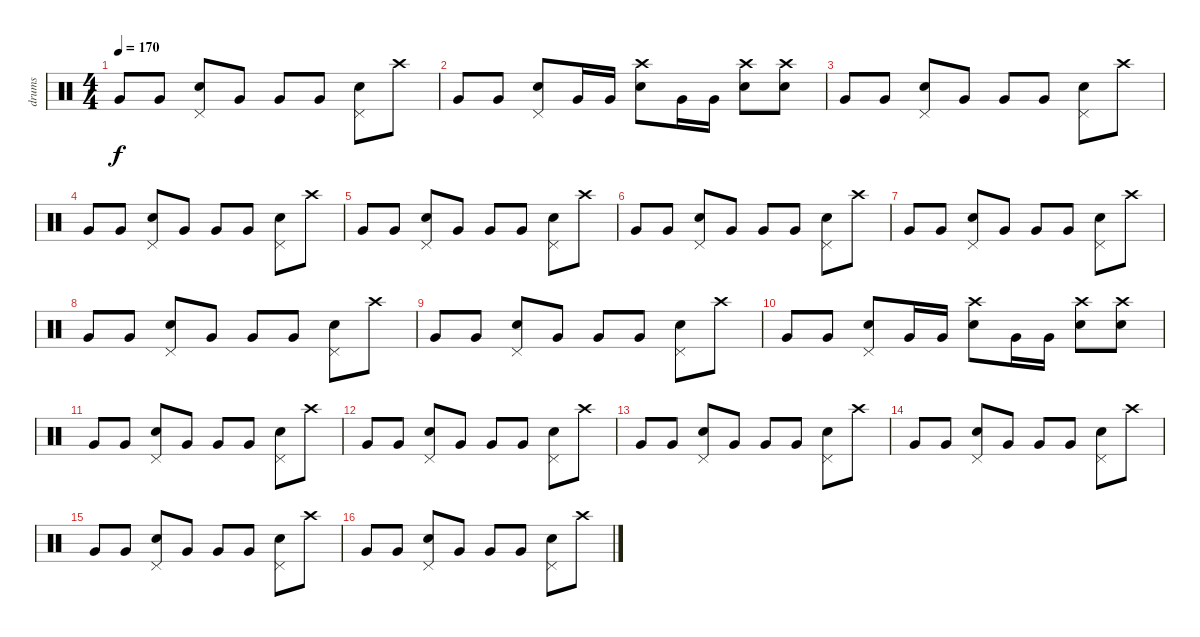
\track ("drums" "drums") {instrument percussion}
\staff {score}
\articulation defaults
\ts (4 4)
\tempo 170
\clef neutral
\ks c "Very Low Tom (hit)".8{dy f} "Very Low Tom (hit)".8
("Snare (hit) 2" "Pedal Hi-Hat (hit)").8 "Very Low Tom (hit)".8 "Very Low Tom (hit)".8 "Very Low Tom (hit)".8 ("Snare (hit) 2" "Pedal Hi-Hat (hit)").8 "Crash high (hit)".8 |
"Very Low Tom (hit)".8 "Very Low Tom (hit)".8 ("Snare (hit) 2" "Pedal Hi-Hat (hit)").8 "Very Low Tom (hit)".16 "Very Low Tom (hit)".16 ("Snare (hit) 2" "Crash high (hit)").8 "Very Low Tom (hit)".16 "Very Low Tom (hit)".16 ("Snare (hit) 2" "Crash high (hit)").8 ("Snare (hit) 2" "Crash high (hit)").8 |
"Very Low Tom (hit)".8 "Very Low Tom (hit)".8 ("Snare (hit) 2" "Pedal Hi-Hat (hit)").8 "Very Low Tom (hit)".8 "Very Low Tom (hit)".8 "Very Low Tom (hit)".8 ("Snare (hit) 2" "Pedal Hi-Hat (hit)").8 "Crash high (hit)".8 |
"Very Low Tom (hit)".8 "Very Low Tom (hit)".8 ("Snare (hit) 2" "Pedal Hi-Hat (hit)").8 "Very Low Tom (hit)".8 "Very Low Tom (hit)".8 "Very Low Tom (hit)".8 ("Snare (hit) 2" "Pedal Hi-Hat (hit)").8 "Crash high (hit)".8 |
"Very Low Tom (hit)".8 "Very Low Tom (hit)".8 ("Snare (hit) 2" "Pedal Hi-Hat (hit)").8 "Very Low Tom (hit)".8 "Very Low Tom (hit)".8 "Very Low Tom (hit)".8 ("Snare (hit) 2" "Pedal Hi-Hat (hit)").8 "Crash high (hit)".8 |
"Very Low Tom (hit)".8 "Very Low Tom (hit)".8 ("Snare (hit) 2" "Pedal Hi-Hat (hit)").8 "Very Low Tom (hit)".8 "Very Low Tom (hit)".8 "Very Low Tom (hit)".8 ("Snare (hit) 2" "Pedal Hi-Hat (hit)").8 "Crash high (hit)".8 |
"Very Low Tom (hit)".8 "Very Low Tom (hit)".8 ("Snare (hit) 2" "Pedal Hi-Hat (hit)").8 "Very Low Tom (hit)".8 "Very Low Tom (hit)".8 "Very Low Tom (hit)".8 ("Snare (hit) 2" "Pedal Hi-Hat (hit)").8 "Crash high (hit)".8 |
"Very Low Tom (hit)".8 "Very Low Tom (hit)".8 ("Snare (hit) 2" "Pedal Hi-Hat (hit)").8 "Very Low Tom (hit)".8 "Very Low Tom (hit)".8 "Very Low Tom (hit)".8 ("Snare (hit) 2" "Pedal Hi-Hat (hit)").8 "Crash high (hit)".8 |
"Very Low Tom (hit)".8 "Very Low Tom (hit)".8 ("Snare (hit) 2" "Pedal Hi-Hat (hit)").8 "Very Low Tom (hit)".8 "Very Low Tom (hit)".8 "Very Low Tom (hit)".8 ("Snare (hit) 2" "Pedal Hi-Hat (hit)").8 "Crash high (hit)".8 |
"Very Low Tom (hit)".8 "Very Low Tom (hit)".8 ("Snare (hit) 2" "Pedal Hi-Hat (hit)").8 "Very Low Tom (hit)".16 "Very Low Tom (hit)".16 ("Snare (hit) 2" "Crash high (hit)").8 "Very Low Tom (hit)".16 "Very Low Tom (hit)".16 ("Snare (hit) 2" "Crash high (hit)").8 ("Snare (hit) 2" "Crash high (hit)").8 |
"Very Low Tom (hit)".8 "Very Low Tom (hit)".8 ("Snare (hit) 2" "Pedal Hi-Hat (hit)").8 "Very Low Tom (hit)".8 "Very Low Tom (hit)".8 "Very Low Tom (hit)".8 ("Snare (hit) 2" "Pedal Hi-Hat (hit)").8 "Crash high (hit)".8 |
"Very Low Tom (hit)".8 "Very Low Tom (hit)".8 ("Snare (hit) 2" "Pedal Hi-Hat (hit)").8 "Very Low Tom (hit)".8 "Very Low Tom (hit)".8 "Very Low Tom (hit)".8 ("Snare (hit) 2" "Pedal Hi-Hat (hit)").8 "Crash high (hit)".8 |
"Very Low Tom (hit)".8 "Very Low Tom (hit)".8 ("Snare (hit) 2" "Pedal Hi-Hat (hit)").8 "Very Low Tom (hit)".8 "Very Low Tom (hit)".8 "Very Low Tom (hit)".8 ("Snare (hit) 2" "Pedal Hi-Hat (hit)").8 "Crash high (hit)".8 |
"Very Low Tom (hit)".8 "Very Low Tom (hit)".8 ("Snare (hit) 2" "Pedal Hi-Hat (hit)").8 "Very Low Tom (hit)".8 "Very Low Tom (hit)".8 "Very Low Tom (hit)".8 ("Snare (hit) 2" "Pedal Hi-Hat (hit)").8 "Crash high (hit)".8 |
"Very Low Tom (hit)".8 "Very Low Tom (hit)".8 ("Snare (hit) 2" "Pedal Hi-Hat (hit)").8 "Very Low Tom (hit)".8 "Very Low Tom (hit)".8 "Very Low Tom (hit)".8 ("Snare (hit) 2" "Pedal Hi-Hat (hit)").8 "Crash high (hit)".8 |
"Very Low Tom (hit)".8 "Very Low Tom (hit)".8 ("Snare (hit) 2" "Pedal Hi-Hat (hit)").8 "Very Low Tom (hit)".8 "Very Low Tom (hit)".8 "Very Low Tom (hit)".8 ("Snare (hit) 2" "Pedal Hi-Hat (hit)").8 "Crash high (hit)".8
